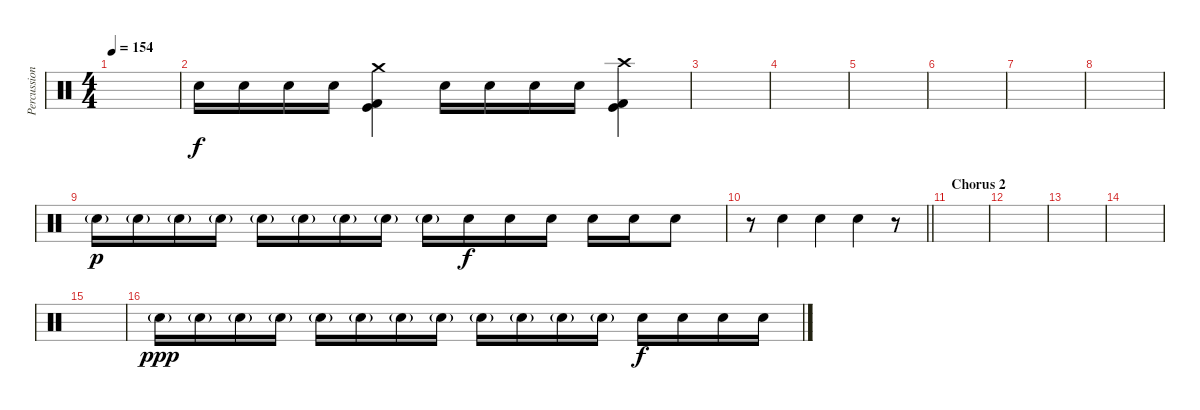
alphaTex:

\track ("Percussion" "Percussion") {instrument percussion}
\staff {score}
\articulation defaults
\ts (4 4)
\tempo 154
\clef neutral
\ks c
|
"Snare (hit) 2".16 "Snare (hit) 2".16 "Snare (hit) 2".16 "Snare (hit) 2".16 ("Crash medium (hit)" "Kick (hit) 2" "Kick (hit)").4 "Snare (hit) 2".16 "Snare (hit) 2".16 "Snare (hit) 2".16 "Snare (hit) 2".16 ("Crash high (hit)" "Kick (hit) 2" "Kick (hit)").4 |
|
|
|
|
|
|
"Snare (hit) 2"{g}.16{dy p} "Snare (hit) 2"{g}.16 "Snare (hit) 2"{g}.16 "Snare (hit) 2"{g}.16 "Snare (hit) 2"{g}.16 "Snare (hit) 2"{g}.16 "Snare (hit) 2"{g}.16 "Snare (hit) 2"{g}.16 "Snare (hit) 2"{g}.16 "Snare (hit) 2".16{dy f} "Snare (hit) 2".16 "Snare (hit) 2".16 "Snare (hit) 2".16 "Snare (hit) 2".16 "Snare (hit) 2".8 |
\barLineRight lightlight
r.8 "Snare (hit) 2".4 "Snare (hit) 2".4 "Snare (hit) 2".4 r.8 |
\section ("" "Chorus 2")
|
|
|
|
|
"Snare (hit) 2"{g}.16{dy ppp} "Snare (hit) 2"{g}.16 "Snare (hit) 2"{g}.16 "Snare (hit) 2"{g}.16 "Snare (hit) 2"{g}.16 "Snare (hit) 2"{g}.16 "Snare (hit) 2"{g}.16 "Snare (hit) 2"{g}.16 "Snare (hit) 2"{g}.16 "Snare (hit) 2"{g}.16 "Snare (hit) 2"{g}.16 "Snare (hit) 2"{g}.16 "Snare (hit) 2".16{dy f} "Snare (hit) 2".16 "Snare (hit) 2".16 "Snare (hit) 2".16
